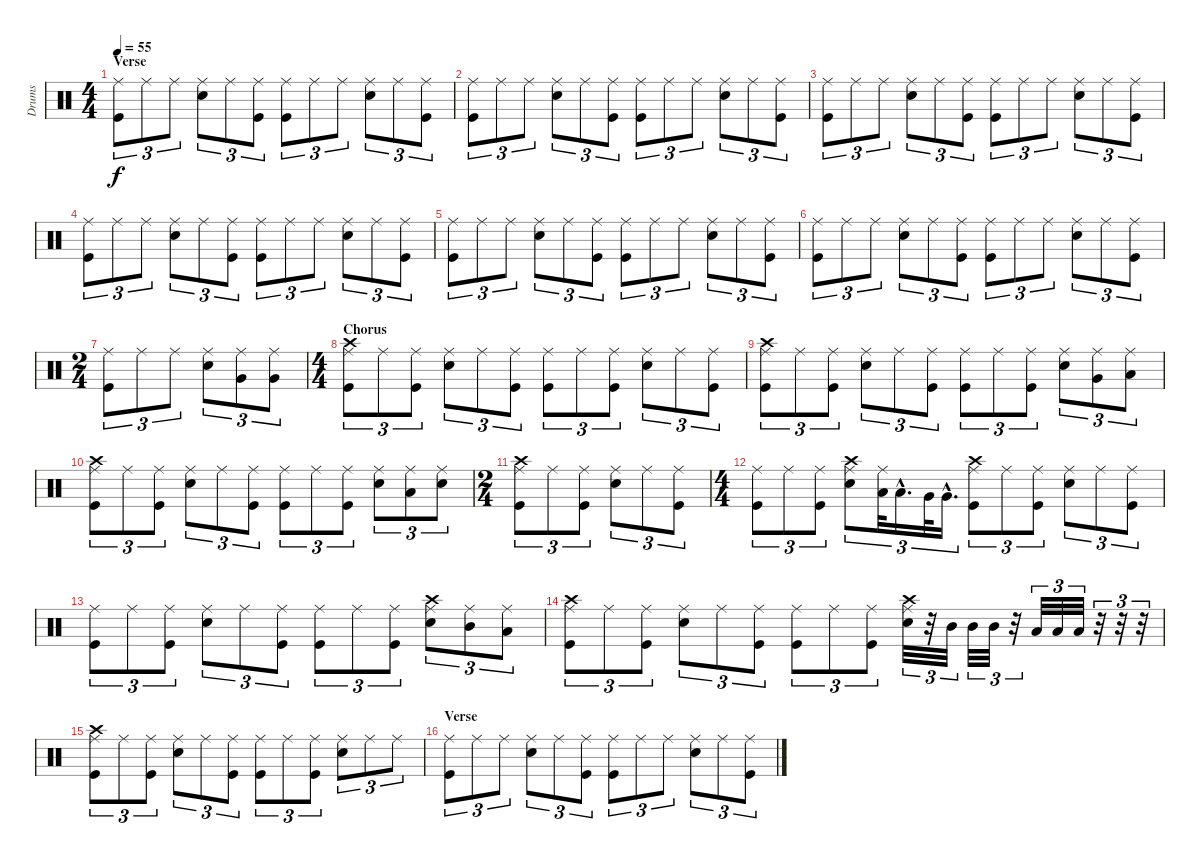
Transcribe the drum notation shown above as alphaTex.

\track ("Drums" "Drums") {instrument percussion}
\staff {score}
\articulation defaults
\ts (4 4)
\section ("" "Verse")
\tempo 55
\clef neutral
\ks c
("Ride (middle)" "Kick (hit)").8{tu (3 2) dy f} "Ride (middle)".8{tu (3 2)} "Ride (middle)".8{tu (3 2)} ("Ride (middle)" "Snare (hit) 2").8{tu (3 2)} "Ride (middle)".8{tu (3 2)} ("Ride (middle)" "Kick (hit)").8{tu (3 2)} ("Ride (middle)" "Kick (hit)").8{tu (3 2)} "Ride (middle)".8{tu (3 2)} "Ride (middle)".8{tu (3 2)} ("Ride (middle)" "Snare (hit) 2").8{tu (3 2)} "Ride (middle)".8{tu (3 2)} ("Ride (middle)" "Kick (hit)").8{tu (3 2)} |
("Ride (middle)" "Kick (hit)").8{tu (3 2)} "Ride (middle)".8{tu (3 2)} "Ride (middle)".8{tu (3 2)} ("Ride (middle)" "Snare (hit) 2").8{tu (3 2)} "Ride (middle)".8{tu (3 2)} ("Ride (middle)" "Kick (hit)").8{tu (3 2)} ("Ride (middle)" "Kick (hit)").8{tu (3 2)} "Ride (middle)".8{tu (3 2)} "Ride (middle)".8{tu (3 2)} ("Ride (middle)" "Snare (hit) 2").8{tu (3 2)} "Ride (middle)".8{tu (3 2)} ("Ride (middle)" "Kick (hit)").8{tu (3 2)} |
("Ride (middle)" "Kick (hit)").8{tu (3 2)} "Ride (middle)".8{tu (3 2)} "Ride (middle)".8{tu (3 2)} ("Ride (middle)" "Snare (hit) 2").8{tu (3 2)} "Ride (middle)".8{tu (3 2)} ("Ride (middle)" "Kick (hit)").8{tu (3 2)} ("Ride (middle)" "Kick (hit)").8{tu (3 2)} "Ride (middle)".8{tu (3 2)} "Ride (middle)".8{tu (3 2)} ("Ride (middle)" "Snare (hit) 2").8{tu (3 2)} "Ride (middle)".8{tu (3 2)} ("Ride (middle)" "Kick (hit)").8{tu (3 2)} |
("Ride (middle)" "Kick (hit)").8{tu (3 2)} "Ride (middle)".8{tu (3 2)} "Ride (middle)".8{tu (3 2)} ("Ride (middle)" "Snare (hit) 2").8{tu (3 2)} "Ride (middle)".8{tu (3 2)} ("Ride (middle)" "Kick (hit)").8{tu (3 2)} ("Ride (middle)" "Kick (hit)").8{tu (3 2)} "Ride (middle)".8{tu (3 2)} "Ride (middle)".8{tu (3 2)} ("Ride (middle)" "Snare (hit) 2").8{tu (3 2)} "Ride (middle)".8{tu (3 2)} ("Ride (middle)" "Kick (hit)").8{tu (3 2)} |
("Ride (middle)" "Kick (hit)").8{tu (3 2)} "Ride (middle)".8{tu (3 2)} "Ride (middle)".8{tu (3 2)} ("Ride (middle)" "Snare (hit) 2").8{tu (3 2)} "Ride (middle)".8{tu (3 2)} ("Ride (middle)" "Kick (hit)").8{tu (3 2)} ("Ride (middle)" "Kick (hit)").8{tu (3 2)} "Ride (middle)".8{tu (3 2)} "Ride (middle)".8{tu (3 2)} ("Ride (middle)" "Snare (hit) 2").8{tu (3 2)} "Ride (middle)".8{tu (3 2)} ("Ride (middle)" "Kick (hit)").8{tu (3 2)} |
("Ride (middle)" "Kick (hit)").8{tu (3 2)} "Ride (middle)".8{tu (3 2)} "Ride (middle)".8{tu (3 2)} ("Ride (middle)" "Snare (hit) 2").8{tu (3 2)} "Ride (middle)".8{tu (3 2)} ("Ride (middle)" "Kick (hit)").8{tu (3 2)} ("Ride (middle)" "Kick (hit)").8{tu (3 2)} "Ride (middle)".8{tu (3 2)} "Ride (middle)".8{tu (3 2)} ("Ride (middle)" "Snare (hit) 2").8{tu (3 2)} "Ride (middle)".8{tu (3 2)} ("Ride (middle)" "Kick (hit)").8{tu (3 2)} |
\ts (2 4)
("Ride (middle)" "Kick (hit)").8{tu (3 2)} "Ride (middle)".8{tu (3 2)} "Ride (middle)".8{tu (3 2)} ("Ride (middle)" "Snare (hit) 2").8{tu (3 2)} ("Ride (middle)" "Very Low Tom (hit)").8{tu (3 2)} ("Ride (middle)" "Very Low Tom (hit)").8{tu (3 2)} |
\ts (4 4)
\section ("" "Chorus")
("Ride (middle)" "Crash high (hit)" "Kick (hit)").8{tu (3 2)} "Ride (middle)".8{tu (3 2)} ("Ride (middle)" "Kick (hit)").8{tu (3 2)} ("Ride (middle)" "Snare (hit) 2").8{tu (3 2)} "Ride (middle)".8{tu (3 2)} ("Ride (middle)" "Kick (hit)").8{tu (3 2)} ("Ride (middle)" "Kick (hit)").8{tu (3 2)} "Ride (middle)".8{tu (3 2)} ("Ride (middle)" "Kick (hit)").8{tu (3 2)} ("Ride (middle)" "Snare (hit) 2").8{tu (3 2)} "Ride (middle)".8{tu (3 2)} ("Ride (middle)" "Kick (hit)").8{tu (3 2)} |
("Ride (middle)" "Crash high (hit)" "Kick (hit)").8{tu (3 2)} "Ride (middle)".8{tu (3 2)} ("Ride (middle)" "Kick (hit)").8{tu (3 2)} ("Ride (middle)" "Snare (hit) 2").8{tu (3 2)} "Ride (middle)".8{tu (3 2)} ("Ride (middle)" "Kick (hit)").8{tu (3 2)} ("Ride (middle)" "Kick (hit)").8{tu (3 2)} "Ride (middle)".8{tu (3 2)} ("Ride (middle)" "Kick (hit)").8{tu (3 2)} ("Ride (middle)" "Snare (hit) 2").8{tu (3 2)} ("Ride (middle)" "Very Low Tom (hit)").8{tu (3 2)} ("Ride (middle)" "Low Tom (hit)").8{tu (3 2)} |
("Ride (middle)" "Crash high (hit)" "Kick (hit)").8{tu (3 2)} "Ride (middle)".8{tu (3 2)} ("Ride (middle)" "Kick (hit)").8{tu (3 2)} ("Ride (middle)" "Snare (hit) 2").8{tu (3 2)} "Ride (middle)".8{tu (3 2)} ("Ride (middle)" "Kick (hit)").8{tu (3 2)} ("Ride (middle)" "Kick (hit)").8{tu (3 2)} "Ride (middle)".8{tu (3 2)} ("Ride (middle)" "Kick (hit)").8{tu (3 2)} ("Ride (middle)" "Snare (hit) 2").8{tu (3 2)} ("Ride (middle)" "Low Tom (hit)").8{tu (3 2)} ("Ride (middle)" "Snare (hit) 2").8{tu (3 2)} |
\ts (2 4)
("Ride (middle)" "Crash high (hit)" "Kick (hit)").8{tu (3 2)} "Ride (middle)".8{tu (3 2)} ("Ride (middle)" "Kick (hit)").8{tu (3 2)} ("Ride (middle)" "Snare (hit) 2").8{tu (3 2)} "Ride (middle)".8{tu (3 2)} ("Ride (middle)" "Kick (hit)").8{tu (3 2)} |
\ts (4 4)
("Ride (middle)" "Kick (hit)").8{tu (3 2)} "Ride (middle)".8{tu (3 2)} ("Ride (middle)" "Kick (hit)").8{tu (3 2)} ("Ride (middle)" "Crash high (hit)" "Snare (hit) 2").8{tu (3 2)} ("Ride (middle)" "Low Tom (hit)").32{tu (3 2)} "Low Tom (hit)"{hac}.16{d tu (3 2)} "Very Low Tom (hit)".32{tu (3 2)} "Very Low Tom (hit)"{hac}.16{d tu (3 2)} ("Ride (middle)" "Crash high (hit)" "Kick (hit)").8{tu (3 2)} "Ride (middle)".8{tu (3 2)} ("Ride (middle)" "Kick (hit)").8{tu (3 2)} ("Ride (middle)" "Snare (hit) 2").8{tu (3 2)} "Ride (middle)".8{tu (3 2)} ("Ride (middle)" "Kick (hit)").8{tu (3 2)} |
("Ride (middle)" "Kick (hit)").8{tu (3 2)} "Ride (middle)".8{tu (3 2)} ("Ride (middle)" "Kick (hit)").8{tu (3 2)} ("Ride (middle)" "Snare (hit) 2").8{tu (3 2)} "Ride (middle)".8{tu (3 2)} ("Ride (middle)" "Kick (hit)").8{tu (3 2)} ("Ride (middle)" "Kick (hit)").8{tu (3 2)} "Ride (middle)".8{tu (3 2)} ("Ride (middle)" "Kick (hit)").8{tu (3 2)} ("Ride (middle)" "Crash high (hit)" "Snare (hit) 2").8{tu (3 2)} ("Ride (middle)" "Mid Tom (hit)").8{tu (3 2)} ("Ride (middle)" "Low Tom (hit)").8{tu (3 2)} |
("Ride (middle)" "Crash high (hit)" "Kick (hit)").8{tu (3 2)} "Ride (middle)".8{tu (3 2)} ("Ride (middle)" "Kick (hit)").8{tu (3 2)} ("Ride (middle)" "Snare (hit) 2").8{tu (3 2)} "Ride (middle)".8{tu (3 2)} ("Ride (middle)" "Kick (hit)").8{tu (3 2)} ("Ride (middle)" "Kick (hit)").8{tu (3 2)} "Ride (middle)".8{tu (3 2)} ("Ride (middle)" "Kick (hit)").8{tu (3 2)} ("Ride (middle)" "Crash high (hit)" "Snare (hit) 2").32{tu (3 2)} r.32{tu (3 2)} "Mid Tom (hit)".32{tu (3 2)} "Mid Tom (hit)".32{tu (3 2)} "Mid Tom (hit)".32{tu (3 2)} r.32{tu (3 2)} "Low Tom (hit)".32{tu (3 2)} "Low Tom (hit)".32{tu (3 2)} "Low Tom (hit)".32{tu (3 2)} r.32{tu (3 2)} r.32{tu (3 2)} r.32{tu (3 2)} |
("Ride (middle)" "Crash high (hit)" "Kick (hit)").8{tu (3 2)} "Ride (middle)".8{tu (3 2)} ("Ride (middle)" "Kick (hit)").8{tu (3 2)} ("Ride (middle)" "Snare (hit) 2").8{tu (3 2)} "Ride (middle)".8{tu (3 2)} ("Ride (middle)" "Kick (hit)").8{tu (3 2)} ("Ride (middle)" "Kick (hit)").8{tu (3 2)} "Ride (middle)".8{tu (3 2)} ("Ride (middle)" "Kick (hit)").8{tu (3 2)} ("Ride (middle)" "Snare (hit) 2").8{tu (3 2)} "Ride (middle)".8{tu (3 2)} "Ride (middle)".8{tu (3 2)} |
\section ("" "Verse")
("Ride (middle)" "Kick (hit)").8{tu (3 2)} "Ride (middle)".8{tu (3 2)} "Ride (middle)".8{tu (3 2)} ("Ride (middle)" "Snare (hit) 2").8{tu (3 2)} "Ride (middle)".8{tu (3 2)} ("Ride (middle)" "Kick (hit)").8{tu (3 2)} ("Ride (middle)" "Kick (hit)").8{tu (3 2)} "Ride (middle)".8{tu (3 2)} "Ride (middle)".8{tu (3 2)} ("Ride (middle)" "Snare (hit) 2").8{tu (3 2)} "Ride (middle)".8{tu (3 2)} ("Ride (middle)" "Kick (hit)").8{tu (3 2)}
